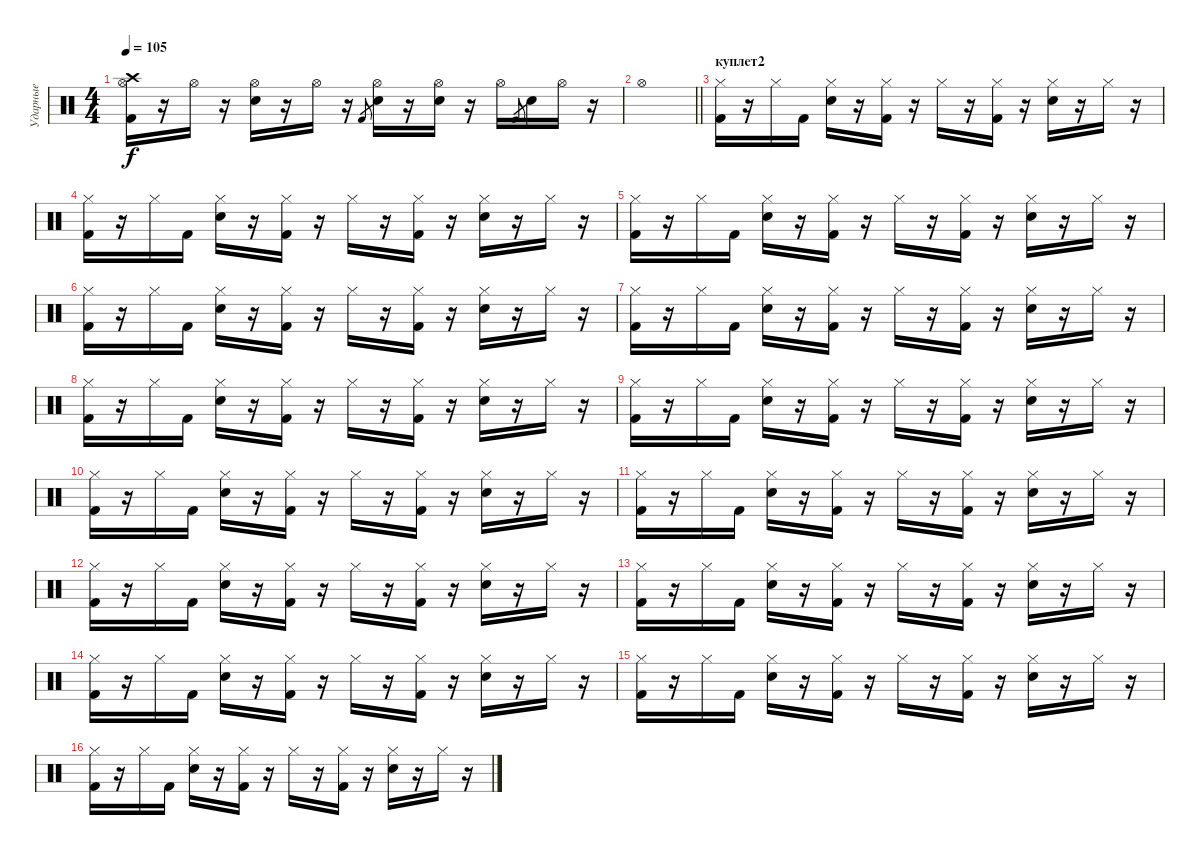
\track ("Ударные" "Ударные") {instrument percussion}
\staff {score}
\articulation defaults
\ts (4 4)
\tempo 105
\clef neutral
\ks c
("Hi-Hat (open)" "Crash high (hit)" "Kick (hit) 2").16{dy f} r.16 "Hi-Hat (open)".16 r.16 ("Hi-Hat (open)" "Electric Snare (hit)").16 r.16 "Hi-Hat (open)".16 r.16 "Kick (hit) 2".8{gr} ("Hi-Hat (open)" "Electric Snare (hit)").16 r.16 ("Hi-Hat (open)" "Electric Snare (hit)").16 r.16 "Hi-Hat (open)".16 "Kick (hit) 2".8{gr} "Electric Snare (hit)".16 "Hi-Hat (open)".16 r.16 |
\barLineRight lightlight "Hi-Hat (open)".1
|
\section ("" "куплет2")
("Hi-Hat (closed)" "Kick (hit) 2").16 r.16 "Hi-Hat (closed)".16 "Kick (hit) 2".16 ("Hi-Hat (closed)" "Electric Snare (hit)").16 r.16 ("Hi-Hat (closed)" "Kick (hit) 2").16 r.16 "Hi-Hat (closed)".16 r.16 ("Hi-Hat (closed)" "Kick (hit) 2").16 r.16 ("Hi-Hat (closed)" "Electric Snare (hit)").16 r.16 "Hi-Hat (closed)".16 r.16 |
("Hi-Hat (closed)" "Kick (hit) 2").16 r.16 "Hi-Hat (closed)".16 "Kick (hit) 2".16 ("Hi-Hat (closed)" "Electric Snare (hit)").16 r.16 ("Hi-Hat (closed)" "Kick (hit) 2").16 r.16 "Hi-Hat (closed)".16 r.16 ("Hi-Hat (closed)" "Kick (hit) 2").16 r.16 ("Hi-Hat (closed)" "Electric Snare (hit)").16 r.16 "Hi-Hat (closed)".16 r.16 |
("Hi-Hat (closed)" "Kick (hit) 2").16 r.16 "Hi-Hat (closed)".16 "Kick (hit) 2".16 ("Hi-Hat (closed)" "Electric Snare (hit)").16 r.16 ("Hi-Hat (closed)" "Kick (hit) 2").16 r.16 "Hi-Hat (closed)".16 r.16 ("Hi-Hat (closed)" "Kick (hit) 2").16 r.16 ("Hi-Hat (closed)" "Electric Snare (hit)").16 r.16 "Hi-Hat (closed)".16 r.16 |
("Hi-Hat (closed)" "Kick (hit) 2").16 r.16 "Hi-Hat (closed)".16 "Kick (hit) 2".16 ("Hi-Hat (closed)" "Electric Snare (hit)").16 r.16 ("Hi-Hat (closed)" "Kick (hit) 2").16 r.16 "Hi-Hat (closed)".16 r.16 ("Hi-Hat (closed)" "Kick (hit) 2").16 r.16 ("Hi-Hat (closed)" "Electric Snare (hit)").16 r.16 "Hi-Hat (closed)".16 r.16 |
("Hi-Hat (closed)" "Kick (hit) 2").16 r.16 "Hi-Hat (closed)".16 "Kick (hit) 2".16 ("Hi-Hat (closed)" "Electric Snare (hit)").16 r.16 ("Hi-Hat (closed)" "Kick (hit) 2").16 r.16 "Hi-Hat (closed)".16 r.16 ("Hi-Hat (closed)" "Kick (hit) 2").16 r.16 ("Hi-Hat (closed)" "Electric Snare (hit)").16 r.16 "Hi-Hat (closed)".16 r.16 |
("Hi-Hat (closed)" "Kick (hit) 2").16 r.16 "Hi-Hat (closed)".16 "Kick (hit) 2".16 ("Hi-Hat (closed)" "Electric Snare (hit)").16 r.16 ("Hi-Hat (closed)" "Kick (hit) 2").16 r.16 "Hi-Hat (closed)".16 r.16 ("Hi-Hat (closed)" "Kick (hit) 2").16 r.16 ("Hi-Hat (closed)" "Electric Snare (hit)").16 r.16 "Hi-Hat (closed)".16 r.16 |
("Hi-Hat (closed)" "Kick (hit) 2").16 r.16 "Hi-Hat (closed)".16 "Kick (hit) 2".16 ("Hi-Hat (closed)" "Electric Snare (hit)").16 r.16 ("Hi-Hat (closed)" "Kick (hit) 2").16 r.16 "Hi-Hat (closed)".16 r.16 ("Hi-Hat (closed)" "Kick (hit) 2").16 r.16 ("Hi-Hat (closed)" "Electric Snare (hit)").16 r.16 "Hi-Hat (closed)".16 r.16 |
("Hi-Hat (closed)" "Kick (hit) 2").16 r.16 "Hi-Hat (closed)".16 "Kick (hit) 2".16 ("Hi-Hat (closed)" "Electric Snare (hit)").16 r.16 ("Hi-Hat (closed)" "Kick (hit) 2").16 r.16 "Hi-Hat (closed)".16 r.16 ("Hi-Hat (closed)" "Kick (hit) 2").16 r.16 ("Hi-Hat (closed)" "Electric Snare (hit)").16 r.16 "Hi-Hat (closed)".16 r.16 |
("Hi-Hat (closed)" "Kick (hit) 2").16 r.16 "Hi-Hat (closed)".16 "Kick (hit) 2".16 ("Hi-Hat (closed)" "Electric Snare (hit)").16 r.16 ("Hi-Hat (closed)" "Kick (hit) 2").16 r.16 "Hi-Hat (closed)".16 r.16 ("Hi-Hat (closed)" "Kick (hit) 2").16 r.16 ("Hi-Hat (closed)" "Electric Snare (hit)").16 r.16 "Hi-Hat (closed)".16 r.16 |
("Hi-Hat (closed)" "Kick (hit) 2").16 r.16 "Hi-Hat (closed)".16 "Kick (hit) 2".16 ("Hi-Hat (closed)" "Electric Snare (hit)").16 r.16 ("Hi-Hat (closed)" "Kick (hit) 2").16 r.16 "Hi-Hat (closed)".16 r.16 ("Hi-Hat (closed)" "Kick (hit) 2").16 r.16 ("Hi-Hat (closed)" "Electric Snare (hit)").16 r.16 "Hi-Hat (closed)".16 r.16 |
("Hi-Hat (closed)" "Kick (hit) 2").16 r.16 "Hi-Hat (closed)".16 "Kick (hit) 2".16 ("Hi-Hat (closed)" "Electric Snare (hit)").16 r.16 ("Hi-Hat (closed)" "Kick (hit) 2").16 r.16 "Hi-Hat (closed)".16 r.16 ("Hi-Hat (closed)" "Kick (hit) 2").16 r.16 ("Hi-Hat (closed)" "Electric Snare (hit)").16 r.16 "Hi-Hat (closed)".16 r.16 |
("Hi-Hat (closed)" "Kick (hit) 2").16 r.16 "Hi-Hat (closed)".16 "Kick (hit) 2".16 ("Hi-Hat (closed)" "Electric Snare (hit)").16 r.16 ("Hi-Hat (closed)" "Kick (hit) 2").16 r.16 "Hi-Hat (closed)".16 r.16 ("Hi-Hat (closed)" "Kick (hit) 2").16 r.16 ("Hi-Hat (closed)" "Electric Snare (hit)").16 r.16 "Hi-Hat (closed)".16 r.16 |
("Hi-Hat (closed)" "Kick (hit) 2").16 r.16 "Hi-Hat (closed)".16 "Kick (hit) 2".16 ("Hi-Hat (closed)" "Electric Snare (hit)").16 r.16 ("Hi-Hat (closed)" "Kick (hit) 2").16 r.16 "Hi-Hat (closed)".16 r.16 ("Hi-Hat (closed)" "Kick (hit) 2").16 r.16 ("Hi-Hat (closed)" "Electric Snare (hit)").16 r.16 "Hi-Hat (closed)".16 r.16 |
("Hi-Hat (closed)" "Kick (hit) 2").16 r.16 "Hi-Hat (closed)".16 "Kick (hit) 2".16 ("Hi-Hat (closed)" "Electric Snare (hit)").16 r.16 ("Hi-Hat (closed)" "Kick (hit) 2").16 r.16 "Hi-Hat (closed)".16 r.16 ("Hi-Hat (closed)" "Kick (hit) 2").16 r.16 ("Hi-Hat (closed)" "Electric Snare (hit)").16 r.16 "Hi-Hat (closed)".16 r.16
